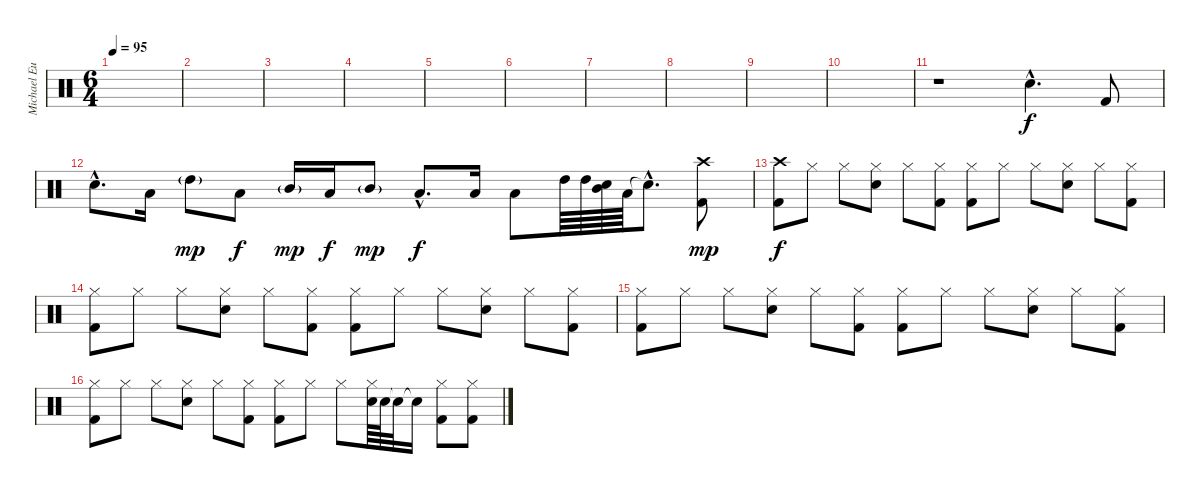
\track ("Michael Eurich" "Michael Eu") {instrument percussion}
\staff {score}
\articulation defaults
\ts (6 4)
\tempo 95
\clef neutral
\ks c
|
|
|
|
|
|
|
|
|
|
r.1 "Snare (hit)"{hac}.4{d} "Kick (hit) 2".8 |
"Snare (hit) 2"{hac}.8{d} "Low Tom (hit)".16 "High Tom (hit)"{g}.8{dy mp} "Low Tom (hit)".8{dy f} "Mid Tom (hit)"{g}.16{dy mp} "Low Tom (hit)".16{dy f} "Mid Tom (hit)"{g}.8{dy mp} "Low Tom (hit)"{hac}.8{d dy f} "Low Tom (hit)".16 "Low Tom (hit)".8 "High Tom (hit)".64 "High Tom (hit)".64 ("Mid Tom (hit)" "Snare (hit)").64 "Low Tom (hit)".64 "Snare (hit)"{hac t}.8{d} ("Kick (hit) 2" "Crash high (hit)").8{dy mp} |
("Kick (hit) 2" "Crash high (hit)").8{dy f} "Hi-Hat (closed)".8 "Hi-Hat (closed)".8 ("Hi-Hat (closed)" "Snare (hit) 2").8 "Hi-Hat (closed)".8 ("Kick (hit) 2" "Hi-Hat (closed)").8 ("Kick (hit) 2" "Hi-Hat (closed)").8 "Hi-Hat (closed)".8 "Hi-Hat (closed)".8 ("Hi-Hat (closed)" "Snare (hit) 2").8 "Hi-Hat (closed)".8 ("Kick (hit) 2" "Hi-Hat (closed)").8 |
("Kick (hit) 2" "Hi-Hat (closed)").8 "Hi-Hat (closed)".8 "Hi-Hat (closed)".8 ("Hi-Hat (closed)" "Snare (hit) 2").8 "Hi-Hat (closed)".8 ("Kick (hit) 2" "Hi-Hat (closed)").8 ("Kick (hit) 2" "Hi-Hat (closed)").8 "Hi-Hat (closed)".8 "Hi-Hat (closed)".8 ("Hi-Hat (closed)" "Snare (hit) 2").8 "Hi-Hat (closed)".8 ("Kick (hit) 2" "Hi-Hat (closed)").8 |
("Kick (hit) 2" "Hi-Hat (closed)").8 "Hi-Hat (closed)".8 "Hi-Hat (closed)".8 ("Hi-Hat (closed)" "Snare (hit) 2").8 "Hi-Hat (closed)".8 ("Kick (hit) 2" "Hi-Hat (closed)").8 ("Kick (hit) 2" "Hi-Hat (closed)").8 "Hi-Hat (closed)".8 "Hi-Hat (closed)".8 ("Hi-Hat (closed)" "Snare (hit) 2").8 "Hi-Hat (closed)".8 ("Kick (hit) 2" "Hi-Hat (closed)").8 |
("Kick (hit) 2" "Hi-Hat (closed)").8 "Hi-Hat (closed)".8 "Hi-Hat (closed)".8 ("Hi-Hat (closed)" "Snare (hit) 2").8 "Hi-Hat (closed)".8 ("Kick (hit) 2" "Hi-Hat (closed)").8 ("Kick (hit) 2" "Hi-Hat (closed)").8 "Hi-Hat (closed)".8 "Hi-Hat (closed)".8 ("Hi-Hat (closed)" "Snare (hit) 2").64 "Snare (hit) 2".64 "Snare (hit)"{t}.32 "Snare (hit)"{t}.16 ("Kick (hit) 2" "Hi-Hat (closed)").8 ("Kick (hit) 2" "Hi-Hat (closed)").8
